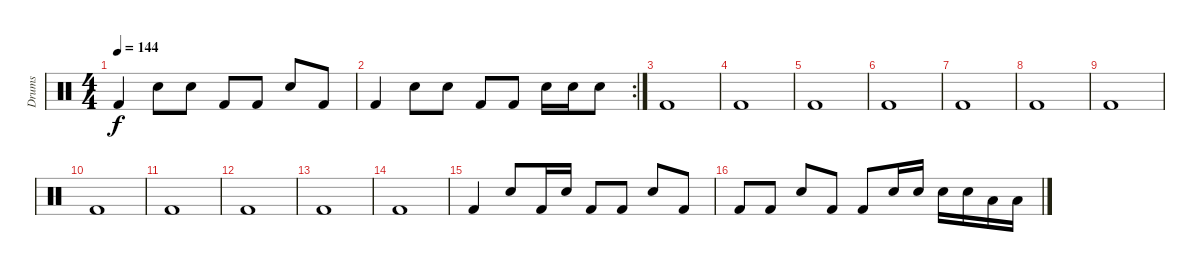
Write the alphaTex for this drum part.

\track ("Drums" "Drums") {instrument percussion}
\staff {score}
\articulation defaults
\ts (4 4)
\tempo 144
\clef neutral
\ks c "Kick (hit) 2".4{dy f} "Electric Snare (hit)".8 "Electric Snare (hit)".8 "Kick (hit) 2".8 "Kick (hit) 2".8 "Electric Snare (hit)".8 "Kick (hit) 2".8
|
\rc 2 "Kick (hit) 2".4 "Electric Snare (hit)".8 "Electric Snare (hit)".8 "Kick (hit) 2".8 "Kick (hit) 2".8 "Electric Snare (hit)".16 "Electric Snare (hit)".16 "Electric Snare (hit)".8
|
"Kick (hit) 2".1 |
"Kick (hit) 2".1 |
"Kick (hit) 2".1 |
"Kick (hit) 2".1 |
"Kick (hit) 2".1 |
"Kick (hit) 2".1 |
"Kick (hit) 2".1 |
"Kick (hit) 2".1 |
"Kick (hit) 2".1 |
"Kick (hit) 2".1 |
"Kick (hit) 2".1 |
"Kick (hit) 2".1 |
"Kick (hit) 2".4 "Electric Snare (hit)".8 "Kick (hit) 2".16 "Electric Snare (hit)".16 "Kick (hit) 2".8 "Kick (hit) 2".8 "Electric Snare (hit)".8 "Kick (hit) 2".8 |
"Kick (hit) 2".8 "Kick (hit) 2".8 "Electric Snare (hit)".8 "Kick (hit) 2".8 "Kick (hit) 2".8 "Electric Snare (hit)".16 "Electric Snare (hit)".16 "Electric Snare (hit)".16 "Electric Snare (hit)".16 "Low Tom (hit)".16 "Low Tom (hit)".16
